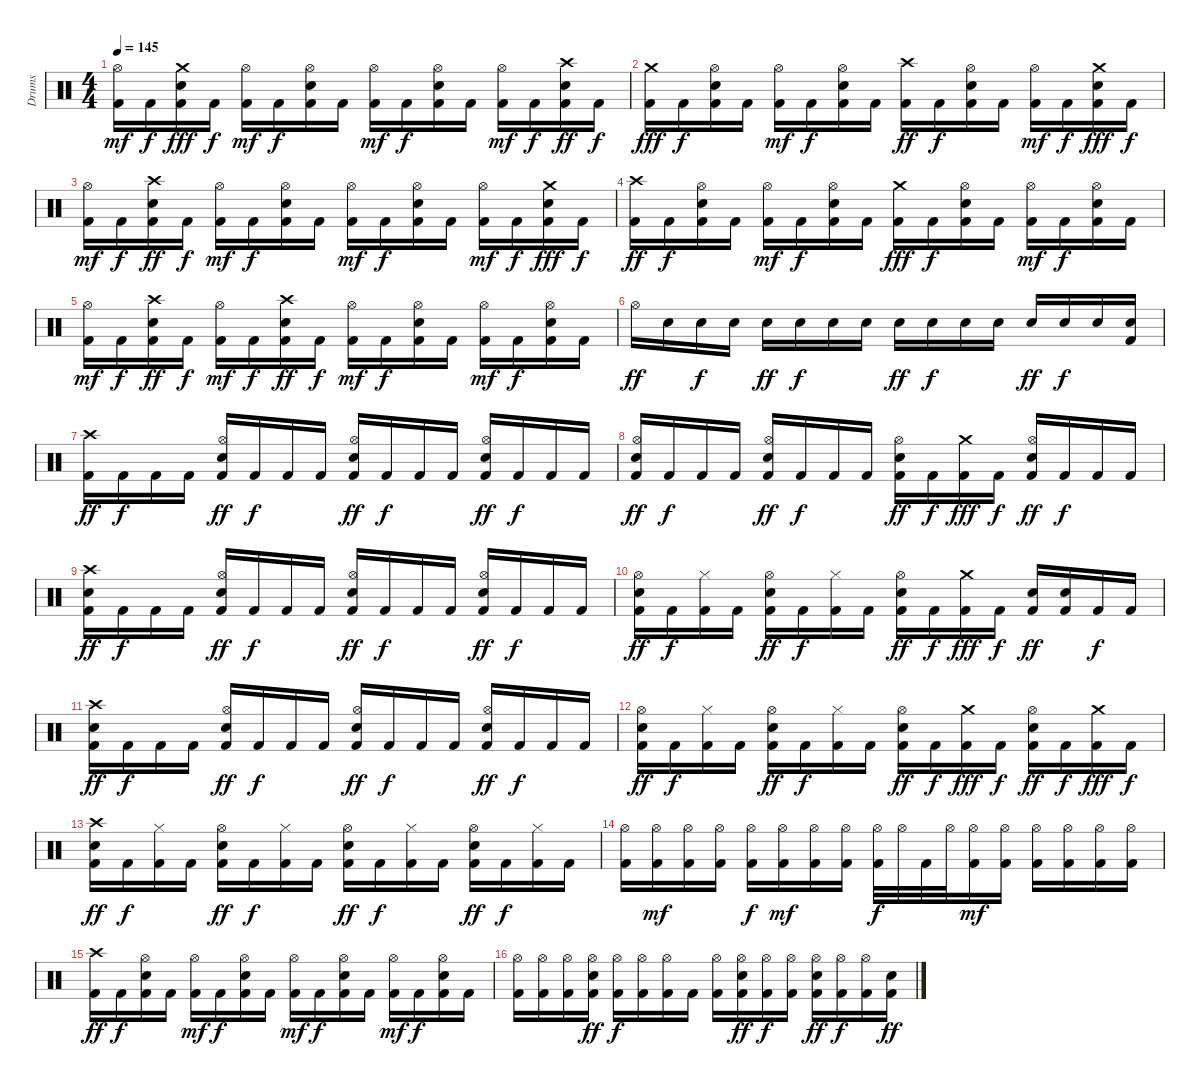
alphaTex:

\track ("Drums" "Drums") {instrument percussion}
\staff {score}
\articulation defaults
\ts (4 4)
\tempo 145
\clef neutral
\ks c
("Kick (hit) 2" "Hi-Hat (open)").16{dy mf} "Kick (hit) 2".16{dy f} ("Kick (hit) 2" "Snare (hit) 2" "Crash medium (hit)").16{dy fff} "Kick (hit) 2".16{dy f} ("Kick (hit) 2" "Hi-Hat (open)").16{dy mf} "Kick (hit) 2".16{dy f} ("Kick (hit) 2" "Snare (hit) 2" "Hi-Hat (open)").16 "Kick (hit) 2".16 ("Kick (hit) 2" "Hi-Hat (open)").16{dy mf} "Kick (hit) 2".16{dy f} ("Kick (hit) 2" "Snare (hit) 2" "Hi-Hat (open)").16 "Kick (hit) 2".16 ("Kick (hit) 2" "Hi-Hat (open)").16{dy mf} "Kick (hit) 2".16{dy f} ("Kick (hit) 2" "Snare (hit) 2" "Crash high (hit)").16{dy ff} "Kick (hit) 2".16{dy f} |
("Kick (hit) 2" "Crash medium (hit)").16{dy fff} "Kick (hit) 2".16{dy f} ("Kick (hit) 2" "Snare (hit) 2" "Hi-Hat (open)").16 "Kick (hit) 2".16 ("Kick (hit) 2" "Hi-Hat (open)").16{dy mf} "Kick (hit) 2".16{dy f} ("Kick (hit) 2" "Snare (hit) 2" "Hi-Hat (open)").16 "Kick (hit) 2".16 ("Kick (hit) 2" "Crash high (hit)").16{dy ff} "Kick (hit) 2".16{dy f} ("Kick (hit) 2" "Snare (hit) 2" "Hi-Hat (open)").16 "Kick (hit) 2".16 ("Kick (hit) 2" "Hi-Hat (open)").16{dy mf} "Kick (hit) 2".16{dy f} ("Kick (hit) 2" "Snare (hit) 2" "Crash medium (hit)").16{dy fff} "Kick (hit) 2".16{dy f} |
("Hi-Hat (open)" "Kick (hit) 2").16{dy mf} "Kick (hit) 2".16{dy f} ("Snare (hit) 2" "Crash high (hit)" "Kick (hit) 2").16{dy ff} "Kick (hit) 2".16{dy f} ("Hi-Hat (open)" "Kick (hit) 2").16{dy mf} "Kick (hit) 2".16{dy f} ("Snare (hit) 2" "Hi-Hat (open)" "Kick (hit) 2").16 "Kick (hit) 2".16 ("Hi-Hat (open)" "Kick (hit) 2").16{dy mf} "Kick (hit) 2".16{dy f} ("Snare (hit) 2" "Hi-Hat (open)" "Kick (hit) 2").16 "Kick (hit) 2".16 ("Hi-Hat (open)" "Kick (hit) 2").16{dy mf} "Kick (hit) 2".16{dy f} ("Snare (hit) 2" "Crash medium (hit)" "Kick (hit) 2").16{dy fff} "Kick (hit) 2".16{dy f} |
("Kick (hit) 2" "Crash high (hit)").16{dy ff} "Kick (hit) 2".16{dy f} ("Kick (hit) 2" "Snare (hit) 2" "Hi-Hat (open)").16 "Kick (hit) 2".16 ("Kick (hit) 2" "Hi-Hat (open)").16{dy mf} "Kick (hit) 2".16{dy f} ("Kick (hit) 2" "Snare (hit) 2" "Hi-Hat (open)").16 "Kick (hit) 2".16 ("Kick (hit) 2" "Crash medium (hit)").16{dy fff} "Kick (hit) 2".16{dy f} ("Kick (hit) 2" "Snare (hit) 2" "Hi-Hat (open)").16 "Kick (hit) 2".16 ("Kick (hit) 2" "Hi-Hat (open)").16{dy mf} "Kick (hit) 2".16{dy f} ("Kick (hit) 2" "Snare (hit) 2" "Hi-Hat (open)").16 "Kick (hit) 2".16 |
("Kick (hit) 2" "Hi-Hat (open)").16{dy mf} "Kick (hit) 2".16{dy f} ("Kick (hit) 2" "Snare (hit) 2" "Crash high (hit)").16{dy ff} "Kick (hit) 2".16{dy f} ("Kick (hit) 2" "Hi-Hat (open)").16{dy mf} "Kick (hit) 2".16{dy f} ("Kick (hit) 2" "Snare (hit) 2" "Crash high (hit)").16{dy ff} "Kick (hit) 2".16{dy f} ("Kick (hit) 2" "Hi-Hat (open)").16{dy mf} "Kick (hit) 2".16{dy f} ("Kick (hit) 2" "Snare (hit) 2" "Hi-Hat (open)").16 "Kick (hit) 2".16 ("Kick (hit) 2" "Hi-Hat (open)").16{dy mf} "Kick (hit) 2".16{dy f} ("Kick (hit) 2" "Snare (hit) 2" "Hi-Hat (open)").16 "Kick (hit) 2".16 |
"Hi-Hat (open)".16{dy ff} "Snare (hit) 2".16 "Snare (hit) 2".16{dy f} "Snare (hit) 2".16 "Snare (hit) 2".16{dy ff} "Snare (hit) 2".16{dy f} "Snare (hit) 2".16 "Snare (hit) 2".16 "Snare (hit) 2".16{dy ff} "Snare (hit) 2".16{dy f} "Snare (hit) 2".16 "Snare (hit) 2".16 "Snare (hit) 2".16{dy ff} "Snare (hit) 2".16{dy f} "Snare (hit) 2".16 ("Kick (hit) 2" "Snare (hit) 2").16 |
("Crash high (hit)" "Kick (hit) 2").16{dy ff} "Kick (hit) 2".16{dy f} "Kick (hit) 2".16 "Kick (hit) 2".16 ("Snare (hit) 2" "Hi-Hat (open)" "Kick (hit) 2").16{dy ff} "Kick (hit) 2".16{dy f} "Kick (hit) 2".16 "Kick (hit) 2".16 ("Snare (hit) 2" "Hi-Hat (open)" "Kick (hit) 2").16{dy ff} "Kick (hit) 2".16{dy f} "Kick (hit) 2".16 "Kick (hit) 2".16 ("Snare (hit) 2" "Hi-Hat (open)" "Kick (hit) 2").16{dy ff} "Kick (hit) 2".16{dy f} "Kick (hit) 2".16 "Kick (hit) 2".16 |
("Kick (hit) 2" "Hi-Hat (open)" "Snare (hit) 2").16{dy ff} "Kick (hit) 2".16{dy f} "Kick (hit) 2".16 "Kick (hit) 2".16 ("Kick (hit) 2" "Snare (hit) 2" "Hi-Hat (open)").16{dy ff} "Kick (hit) 2".16{dy f} "Kick (hit) 2".16 "Kick (hit) 2".16 ("Kick (hit) 2" "Hi-Hat (open)" "Snare (hit) 2").16{dy ff} "Kick (hit) 2".16{dy f} ("Kick (hit) 2" "Crash medium (hit)").16{dy fff} "Kick (hit) 2".16{dy f} ("Kick (hit) 2" "Hi-Hat (open)" "Snare (hit) 2").16{dy ff} "Kick (hit) 2".16{dy f} "Kick (hit) 2".16 "Kick (hit) 2".16 |
("Snare (hit) 2" "Crash high (hit)" "Kick (hit) 2").16{dy ff} "Kick (hit) 2".16{dy f} "Kick (hit) 2".16 "Kick (hit) 2".16 ("Snare (hit) 2" "Hi-Hat (open)" "Kick (hit) 2").16{dy ff} "Kick (hit) 2".16{dy f} "Kick (hit) 2".16 "Kick (hit) 2".16 ("Snare (hit) 2" "Hi-Hat (open)" "Kick (hit) 2").16{dy ff} "Kick (hit) 2".16{dy f} "Kick (hit) 2".16 "Kick (hit) 2".16 ("Snare (hit) 2" "Hi-Hat (open)" "Kick (hit) 2").16{dy ff} "Kick (hit) 2".16{dy f} "Kick (hit) 2".16 "Kick (hit) 2".16 |
("Kick (hit) 2" "Snare (hit) 2" "Hi-Hat (open)").16{dy ff} "Kick (hit) 2".16{dy f} ("Kick (hit) 2" "Hi-Hat (closed)").16 "Kick (hit) 2".16 ("Kick (hit) 2" "Hi-Hat (open)" "Snare (hit) 2").16{dy ff} "Kick (hit) 2".16{dy f} ("Kick (hit) 2" "Hi-Hat (closed)").16 "Kick (hit) 2".16 ("Kick (hit) 2" "Snare (hit) 2" "Hi-Hat (open)").16{dy ff} "Kick (hit) 2".16{dy f} ("Kick (hit) 2" "Crash medium (hit)").16{dy fff} "Kick (hit) 2".16{dy f} ("Kick (hit) 2" "Snare (hit) 2").16{dy ff} ("Kick (hit) 2" "Snare (hit) 2").16 "Kick (hit) 2".16{dy f} "Kick (hit) 2".16 |
("Kick (hit) 2" "Snare (hit) 2" "Crash high (hit)").16{dy ff} "Kick (hit) 2".16{dy f} "Kick (hit) 2".16 "Kick (hit) 2".16 ("Kick (hit) 2" "Hi-Hat (open)" "Snare (hit) 2").16{dy ff} "Kick (hit) 2".16{dy f} "Kick (hit) 2".16 "Kick (hit) 2".16 ("Kick (hit) 2" "Hi-Hat (open)" "Snare (hit) 2").16{dy ff} "Kick (hit) 2".16{dy f} "Kick (hit) 2".16 "Kick (hit) 2".16 ("Kick (hit) 2" "Hi-Hat (open)" "Snare (hit) 2").16{dy ff} "Kick (hit) 2".16{dy f} "Kick (hit) 2".16 "Kick (hit) 2".16 |
("Snare (hit) 2" "Hi-Hat (open)" "Kick (hit) 2").16{dy ff} "Kick (hit) 2".16{dy f} ("Hi-Hat (closed)" "Kick (hit) 2").16 "Kick (hit) 2".16 ("Snare (hit) 2" "Hi-Hat (open)" "Kick (hit) 2").16{dy ff} "Kick (hit) 2".16{dy f} ("Hi-Hat (closed)" "Kick (hit) 2").16 "Kick (hit) 2".16 ("Snare (hit) 2" "Hi-Hat (open)" "Kick (hit) 2").16{dy ff} "Kick (hit) 2".16{dy f} ("Crash medium (hit)" "Kick (hit) 2").16{dy fff} "Kick (hit) 2".16{dy f} ("Snare (hit) 2" "Hi-Hat (open)" "Kick (hit) 2").16{dy ff} "Kick (hit) 2".16{dy f} ("Crash medium (hit)" "Kick (hit) 2").16{dy fff} "Kick (hit) 2".16{dy f} |
("Snare (hit) 2" "Crash high (hit)" "Kick (hit) 2").16{dy ff} "Kick (hit) 2".16{dy f} ("Hi-Hat (closed)" "Kick (hit) 2").16 "Kick (hit) 2".16 ("Hi-Hat (open)" "Snare (hit) 2" "Kick (hit) 2").16{dy ff} "Kick (hit) 2".16{dy f} ("Hi-Hat (closed)" "Kick (hit) 2").16 "Kick (hit) 2".16 ("Hi-Hat (open)" "Snare (hit) 2" "Kick (hit) 2").16{dy ff} "Kick (hit) 2".16{dy f} ("Hi-Hat (closed)" "Kick (hit) 2").16 "Kick (hit) 2".16 ("Snare (hit) 2" "Hi-Hat (open)" "Kick (hit) 2").16{dy ff} "Kick (hit) 2".16{dy f} ("Hi-Hat (closed)" "Kick (hit) 2").16 "Kick (hit) 2".16 |
("Kick (hit) 2" "Hi-Hat (open)").16 ("Kick (hit) 2" "Hi-Hat (open)").16{dy mf} ("Kick (hit) 2" "Hi-Hat (open)").16 ("Kick (hit) 2" "Hi-Hat (open)").16 ("Kick (hit) 2" "Hi-Hat (open)").16{dy f} ("Kick (hit) 2" "Hi-Hat (open)").16{dy mf} ("Kick (hit) 2" "Hi-Hat (open)").16 ("Kick (hit) 2" "Hi-Hat (open)").16 ("Kick (hit) 2" "Hi-Hat (open)").32{dy f} "Hi-Hat (open)".32 "Kick (hit) 2".32 "Hi-Hat (open)".32 ("Kick (hit) 2" "Hi-Hat (open)").16{dy mf} ("Kick (hit) 2" "Hi-Hat (open)").16 ("Kick (hit) 2" "Hi-Hat (open)").16 ("Kick (hit) 2" "Hi-Hat (open)").16 ("Kick (hit) 2" "Hi-Hat (open)").16 ("Kick (hit) 2" "Hi-Hat (open)").16 |
("Crash high (hit)" "Kick (hit) 2").16{dy ff} "Kick (hit) 2".16{dy f} ("Snare (hit) 2" "Hi-Hat (open)" "Kick (hit) 2").16 "Kick (hit) 2".16 ("Hi-Hat (open)" "Kick (hit) 2").16{dy mf} "Kick (hit) 2".16{dy f} ("Snare (hit) 2" "Hi-Hat (open)" "Kick (hit) 2").16 "Kick (hit) 2".16 ("Hi-Hat (open)" "Kick (hit) 2").16{dy mf} "Kick (hit) 2".16{dy f} ("Snare (hit) 2" "Hi-Hat (open)" "Kick (hit) 2").16 "Kick (hit) 2".16 ("Hi-Hat (open)" "Kick (hit) 2").16{dy mf} "Kick (hit) 2".16{dy f} ("Snare (hit) 2" "Hi-Hat (open)" "Kick (hit) 2").16 "Kick (hit) 2".16 |
("Hi-Hat (open)" "Kick (hit) 2").16 ("Hi-Hat (open)" "Kick (hit) 2").16 ("Hi-Hat (open)" "Kick (hit) 2").16 ("Snare (hit) 2" "Hi-Hat (open)" "Kick (hit) 2").16{dy ff} ("Hi-Hat (open)" "Kick (hit) 2").16{dy f} ("Hi-Hat (open)" "Kick (hit) 2").16 ("Hi-Hat (open)" "Kick (hit) 2").16 "Kick (hit) 2".16 ("Hi-Hat (open)" "Kick (hit) 2").16 ("Snare (hit) 2" "Hi-Hat (open)" "Kick (hit) 2").16{dy ff} ("Hi-Hat (open)" "Kick (hit) 2").16{dy f} ("Hi-Hat (open)" "Kick (hit) 2").16 ("Snare (hit) 2" "Hi-Hat (open)" "Kick (hit) 2").16{dy ff} ("Hi-Hat (open)" "Kick (hit) 2").16{dy f} ("Hi-Hat (open)" "Kick (hit) 2").16 ("Snare (hit) 2" "Kick (hit) 2").16{dy ff}
